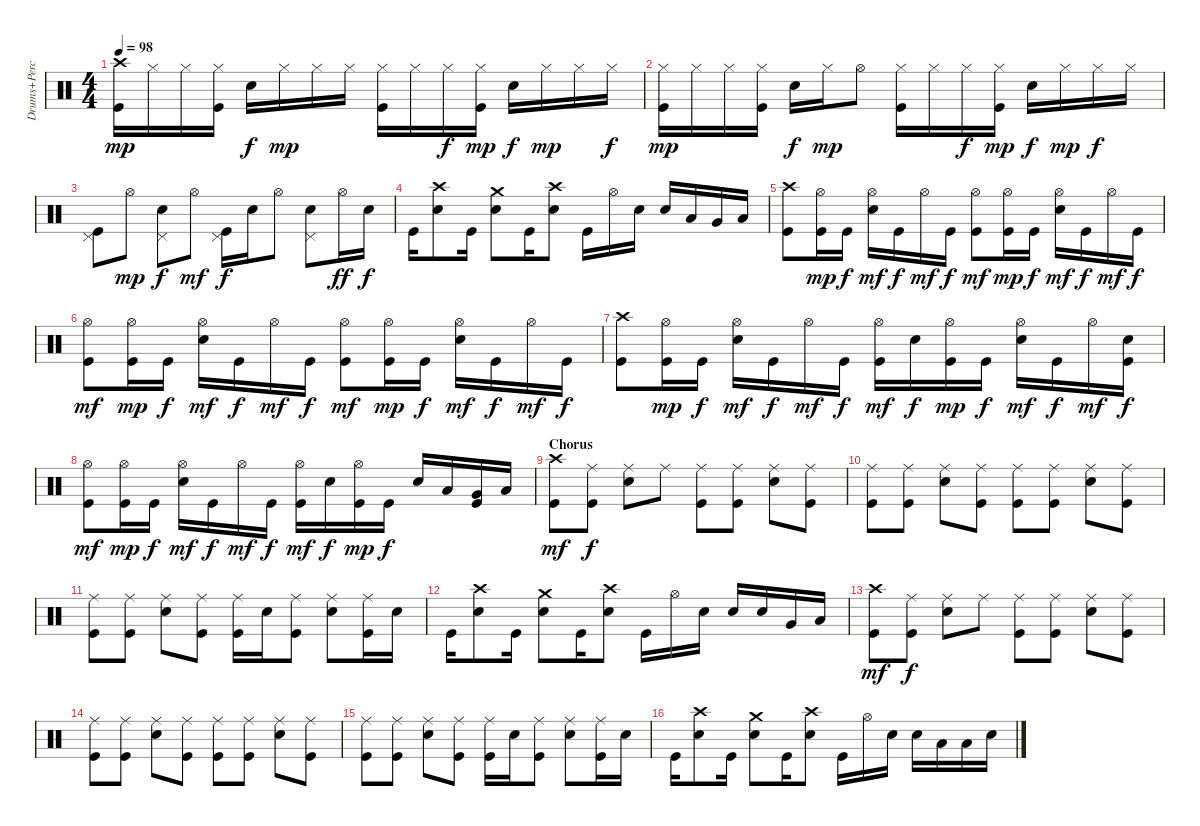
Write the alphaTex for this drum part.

\track ("Drums+Percussion" "Drums+Perc") {instrument percussion}
\staff {score}
\articulation defaults
\ts (4 4)
\tempo 98
\clef neutral
\ks c
("Kick (hit)" "Crash high (hit)").16{dy mp} "Hi-Hat (closed)".16 "Hi-Hat (closed)".16 ("Kick (hit)" "Hi-Hat (closed)").16 "Snare (hit) 2".16{dy f} "Hi-Hat (closed)".16{dy mp} "Hi-Hat (closed)".16 "Hi-Hat (closed)".16 ("Kick (hit)" "Hi-Hat (closed)").16 "Hi-Hat (closed)".16 "Hi-Hat (closed)".16{dy f} ("Kick (hit)" "Hi-Hat (closed)").16{dy mp} "Snare (hit) 2".16{dy f} "Hi-Hat (closed)".16{dy mp} "Hi-Hat (closed)".16 "Hi-Hat (closed)".16{dy f} |
("Kick (hit)" "Hi-Hat (closed)").16{dy mp} "Hi-Hat (closed)".16 "Hi-Hat (closed)".16 ("Kick (hit)" "Hi-Hat (closed)").16 "Snare (hit) 2".16{dy f} "Hi-Hat (closed)".16{dy mp} "Hi-Hat (open)".8 ("Kick (hit)" "Hi-Hat (closed)").16 "Hi-Hat (closed)".16 "Hi-Hat (closed)".16{dy f} ("Kick (hit)" "Hi-Hat (closed)").16{dy mp} "Snare (hit) 2".16{dy f} "Hi-Hat (closed)".16{dy mp} "Hi-Hat (closed)".16{dy f} "Hi-Hat (closed)".16 |
("Kick (hit)" "Pedal Hi-Hat (hit)").8 "Hi-Hat (open)".8{dy mp} ("Snare (hit) 2" "Pedal Hi-Hat (hit)").8{dy f} "Hi-Hat (open)".8{dy mf} ("Kick (hit)" "Pedal Hi-Hat (hit)").16{dy f} "Snare (hit) 2".16 "Hi-Hat (open)".8 ("Snare (hit) 2" "Pedal Hi-Hat (hit)").8 "Hi-Hat (open)".16{dy ff} "Snare (hit) 2".16{dy f} |
"Kick (hit)".16 ("Snare (hit) 2" "Crash high (hit)").8 "Kick (hit)".16 ("Snare (hit) 2" "Crash medium (hit)").8 "Kick (hit)".16 ("Snare (hit) 2" "Crash high (hit)").8 "Kick (hit)".16 "Hi-Hat (open)".16 "Snare (hit) 2".16 "Snare (hit) 2".16 "Low Tom (hit)".16 "Very Low Tom (hit)".16 "Low Floor Tom (hit)".16 |
("Kick (hit)" "Crash high (hit)").8 ("Kick (hit)" "Hi-Hat (open)").16{dy mp} "Kick (hit)".16{dy f} ("Snare (hit) 2" "Hi-Hat (open)").16{dy mf} "Kick (hit)".16{dy f} "Hi-Hat (open)".16{dy mf} "Kick (hit)".16{dy f} ("Kick (hit)" "Hi-Hat (open)").8{dy mf} ("Kick (hit)" "Hi-Hat (open)").16{dy mp} "Kick (hit)".16{dy f} ("Snare (hit) 2" "Hi-Hat (open)").16{dy mf} "Kick (hit)".16{dy f} "Hi-Hat (open)".16{dy mf} "Kick (hit)".16{dy f} |
("Kick (hit)" "Hi-Hat (open)").8{dy mf} ("Kick (hit)" "Hi-Hat (open)").16{dy mp} "Kick (hit)".16{dy f} ("Snare (hit) 2" "Hi-Hat (open)").16{dy mf} "Kick (hit)".16{dy f} "Hi-Hat (open)".16{dy mf} "Kick (hit)".16{dy f} ("Kick (hit)" "Hi-Hat (open)").8{dy mf} ("Kick (hit)" "Hi-Hat (open)").16{dy mp} "Kick (hit)".16{dy f} ("Snare (hit) 2" "Hi-Hat (open)").16{dy mf} "Kick (hit)".16{dy f} "Hi-Hat (open)".16{dy mf} "Kick (hit)".16{dy f} |
("Kick (hit)" "Crash high (hit)").8 ("Kick (hit)" "Hi-Hat (open)").16{dy mp} "Kick (hit)".16{dy f} ("Snare (hit) 2" "Hi-Hat (open)").16{dy mf} "Kick (hit)".16{dy f} "Hi-Hat (open)".16{dy mf} "Kick (hit)".16{dy f} ("Kick (hit)" "Hi-Hat (open)").16{dy mf} "Snare (hit) 2".16{dy f} ("Kick (hit)" "Hi-Hat (open)").16{dy mp} "Kick (hit)".16{dy f} ("Snare (hit) 2" "Hi-Hat (open)").16{dy mf} "Kick (hit)".16{dy f} "Hi-Hat (open)".16{dy mf} ("Kick (hit)" "Snare (hit) 2").16{dy f} |
("Kick (hit)" "Hi-Hat (open)").8{dy mf} ("Kick (hit)" "Hi-Hat (open)").16{dy mp} "Kick (hit)".16{dy f} ("Snare (hit) 2" "Hi-Hat (open)").16{dy mf} "Kick (hit)".16{dy f} "Hi-Hat (open)".16{dy mf} "Kick (hit)".16{dy f} ("Kick (hit)" "Hi-Hat (open)").16{dy mf} "Snare (hit) 2".16{dy f} ("Kick (hit)" "Hi-Hat (open)").16{dy mp} "Kick (hit)".16{dy f} "Snare (hit) 2".16 "Low Tom (hit)".16 ("Kick (hit)" "Very Low Tom (hit)").16 "Low Floor Tom (hit)".16 |
\section ("" "Chorus")
("Kick (hit)" "Crash high (hit)").8{dy mf} ("Kick (hit)" "Ride (middle)").8{dy f} ("Snare (hit) 2" "Ride (middle)").8 "Ride (middle)".8 ("Kick (hit)" "Ride (middle)").8 ("Kick (hit)" "Ride (middle)").8 ("Snare (hit) 2" "Ride (middle)").8 ("Kick (hit)" "Ride (middle)").8 |
("Kick (hit)" "Ride (middle)").8 ("Kick (hit)" "Ride (middle)").8 ("Snare (hit) 2" "Ride (middle)").8 ("Kick (hit)" "Ride (middle)").8 ("Kick (hit)" "Ride (middle)").8 ("Kick (hit)" "Ride (middle)").8 ("Snare (hit) 2" "Ride (middle)").8 ("Kick (hit)" "Ride (middle)").8 |
("Kick (hit)" "Ride (middle)").8 ("Kick (hit)" "Ride (middle)").8 ("Snare (hit) 2" "Ride (middle)").8 ("Kick (hit)" "Ride (middle)").8 ("Kick (hit)" "Ride (middle)").16 "Snare (hit) 2".16 ("Kick (hit)" "Ride (middle)").8 ("Snare (hit) 2" "Ride (middle)").8 ("Kick (hit)" "Ride (middle)").16 "Snare (hit) 2".16 |
"Kick (hit)".16 ("Snare (hit) 2" "Crash high (hit)").8 "Kick (hit)".16 ("Snare (hit) 2" "Crash medium (hit)").8 "Kick (hit)".16 ("Snare (hit) 2" "Crash high (hit)").8 "Kick (hit)".16 "Hi-Hat (open)".16 "Snare (hit) 2".16 "Snare (hit) 2".16 "Snare (hit) 2".16 "Very Low Tom (hit)".16 "Low Floor Tom (hit)".16 |
("Kick (hit)" "Crash high (hit)").8{dy mf} ("Kick (hit)" "Ride (middle)").8{dy f} ("Snare (hit) 2" "Ride (middle)").8 "Ride (middle)".8 ("Kick (hit)" "Ride (middle)").8 ("Kick (hit)" "Ride (middle)").8 ("Snare (hit) 2" "Ride (middle)").8 ("Kick (hit)" "Ride (middle)").8 |
("Kick (hit)" "Ride (middle)").8 ("Kick (hit)" "Ride (middle)").8 ("Snare (hit) 2" "Ride (middle)").8 ("Kick (hit)" "Ride (middle)").8 ("Kick (hit)" "Ride (middle)").8 ("Kick (hit)" "Ride (middle)").8 ("Snare (hit) 2" "Ride (middle)").8 ("Kick (hit)" "Ride (middle)").8 |
("Kick (hit)" "Ride (middle)").8 ("Kick (hit)" "Ride (middle)").8 ("Snare (hit) 2" "Ride (middle)").8 ("Kick (hit)" "Ride (middle)").8 ("Kick (hit)" "Ride (middle)").16 "Snare (hit) 2".16 ("Kick (hit)" "Ride (middle)").8 ("Snare (hit) 2" "Ride (middle)").8 ("Kick (hit)" "Ride (middle)").16 "Snare (hit) 2".16 |
"Kick (hit)".16 ("Snare (hit) 2" "Crash high (hit)").8 "Kick (hit)".16 ("Snare (hit) 2" "Crash medium (hit)").8 "Kick (hit)".16 ("Snare (hit) 2" "Crash high (hit)").8 "Kick (hit)".16 "Hi-Hat (open)".16 "Snare (hit) 2".16 "Snare (hit) 2".16 "Low Tom (hit)".16 "Low Tom (hit)".16 "Snare (hit) 2".16
